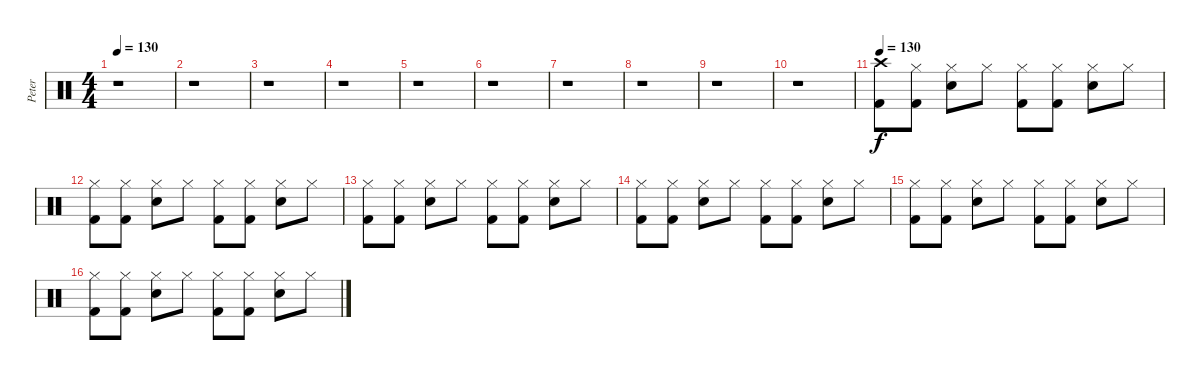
\track ("Peter" "Peter") {instrument percussion}
\staff {score}
\articulation defaults
\ts (4 4)
\tempo 130
\clef neutral
\ks c
r.1{dy f} |
r.1 |
r.1 |
r.1 |
r.1 |
r.1 |
r.1 |
r.1 |
r.1 |
r.1 |
\tempo 130
("Crash high (hit)" "Kick (hit) 2").8 ("Hi-Hat (closed)" "Kick (hit) 2").8 ("Hi-Hat (closed)" "Electric Snare (hit)").8 "Hi-Hat (closed)".8 ("Hi-Hat (closed)" "Kick (hit) 2").8 ("Hi-Hat (closed)" "Kick (hit) 2").8 ("Hi-Hat (closed)" "Electric Snare (hit)").8 "Hi-Hat (closed)".8 |
("Hi-Hat (closed)" "Kick (hit) 2").8 ("Hi-Hat (closed)" "Kick (hit) 2").8 ("Hi-Hat (closed)" "Electric Snare (hit)").8 "Hi-Hat (closed)".8 ("Hi-Hat (closed)" "Kick (hit) 2").8 ("Hi-Hat (closed)" "Kick (hit) 2").8 ("Hi-Hat (closed)" "Electric Snare (hit)").8 "Hi-Hat (closed)".8 |
("Hi-Hat (closed)" "Kick (hit) 2").8 ("Hi-Hat (closed)" "Kick (hit) 2").8 ("Hi-Hat (closed)" "Electric Snare (hit)").8 "Hi-Hat (closed)".8 ("Hi-Hat (closed)" "Kick (hit) 2").8 ("Hi-Hat (closed)" "Kick (hit) 2").8 ("Hi-Hat (closed)" "Electric Snare (hit)").8 "Hi-Hat (closed)".8 |
("Hi-Hat (closed)" "Kick (hit) 2").8 ("Hi-Hat (closed)" "Kick (hit) 2").8 ("Hi-Hat (closed)" "Electric Snare (hit)").8 "Hi-Hat (closed)".8 ("Hi-Hat (closed)" "Kick (hit) 2").8 ("Hi-Hat (closed)" "Kick (hit) 2").8 ("Hi-Hat (closed)" "Electric Snare (hit)").8 "Hi-Hat (closed)".8 |
("Hi-Hat (closed)" "Kick (hit) 2").8 ("Hi-Hat (closed)" "Kick (hit) 2").8 ("Hi-Hat (closed)" "Electric Snare (hit)").8 "Hi-Hat (closed)".8 ("Hi-Hat (closed)" "Kick (hit) 2").8 ("Hi-Hat (closed)" "Kick (hit) 2").8 ("Hi-Hat (closed)" "Electric Snare (hit)").8 "Hi-Hat (closed)".8 |
("Hi-Hat (closed)" "Kick (hit) 2").8 ("Hi-Hat (closed)" "Kick (hit) 2").8 ("Hi-Hat (closed)" "Electric Snare (hit)").8 "Hi-Hat (closed)".8 ("Hi-Hat (closed)" "Kick (hit) 2").8 ("Hi-Hat (closed)" "Kick (hit) 2").8 ("Hi-Hat (closed)" "Electric Snare (hit)").8 "Hi-Hat (closed)".8
